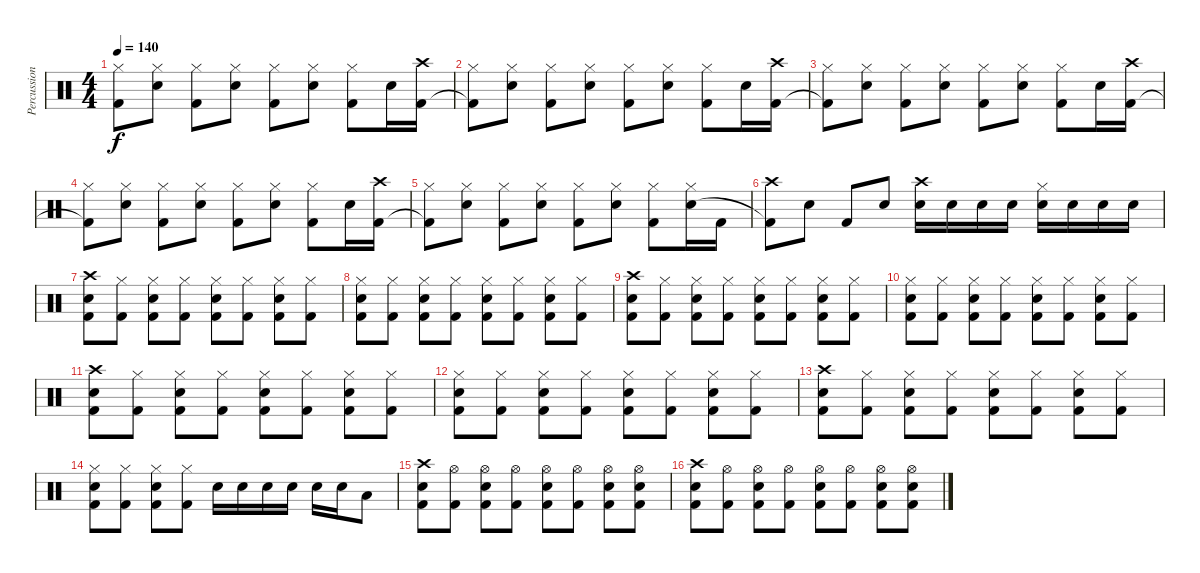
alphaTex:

\track ("Percussion" "Percussion") {instrument percussion}
\staff {score}
\articulation defaults
\ts (4 4)
\tempo 140
\clef neutral
\ks c
("Hi-Hat (closed)" "Kick (hit) 2"{t}).8{dy f} ("Hi-Hat (closed)" "Snare (hit) 2").8 ("Hi-Hat (closed)" "Kick (hit) 2").8 ("Hi-Hat (closed)" "Snare (hit) 2").8 ("Hi-Hat (closed)" "Kick (hit) 2").8 ("Hi-Hat (closed)" "Snare (hit) 2").8 ("Hi-Hat (closed)" "Kick (hit) 2").8 "Snare (hit) 2".16 ("Crash high (hit)" "Kick (hit) 2").16 |
("Hi-Hat (closed)" "Kick (hit) 2"{t}).8 ("Hi-Hat (closed)" "Snare (hit) 2").8 ("Hi-Hat (closed)" "Kick (hit) 2").8 ("Hi-Hat (closed)" "Snare (hit) 2").8 ("Hi-Hat (closed)" "Kick (hit) 2").8 ("Hi-Hat (closed)" "Snare (hit) 2").8 ("Hi-Hat (closed)" "Kick (hit) 2").8 "Snare (hit) 2".16 ("Crash high (hit)" "Kick (hit) 2").16 |
("Hi-Hat (closed)" "Kick (hit) 2"{t}).8 ("Hi-Hat (closed)" "Snare (hit) 2").8 ("Hi-Hat (closed)" "Kick (hit) 2").8 ("Hi-Hat (closed)" "Snare (hit) 2").8 ("Hi-Hat (closed)" "Kick (hit) 2").8 ("Hi-Hat (closed)" "Snare (hit) 2").8 ("Hi-Hat (closed)" "Kick (hit) 2").8 "Snare (hit) 2".16 ("Crash high (hit)" "Kick (hit) 2").16 |
("Hi-Hat (closed)" "Kick (hit) 2"{t}).8 ("Hi-Hat (closed)" "Snare (hit) 2").8 ("Hi-Hat (closed)" "Kick (hit) 2").8 ("Hi-Hat (closed)" "Snare (hit) 2").8 ("Hi-Hat (closed)" "Kick (hit) 2").8 ("Hi-Hat (closed)" "Snare (hit) 2").8 ("Hi-Hat (closed)" "Kick (hit) 2").8 "Snare (hit) 2".16 ("Crash high (hit)" "Kick (hit) 2").16 |
("Hi-Hat (closed)" "Kick (hit) 2"{t}).8 ("Hi-Hat (closed)" "Snare (hit) 2").8 ("Hi-Hat (closed)" "Kick (hit) 2").8 ("Hi-Hat (closed)" "Snare (hit) 2").8 ("Hi-Hat (closed)" "Kick (hit) 2").8 ("Hi-Hat (closed)" "Snare (hit) 2").8 ("Hi-Hat (closed)" "Kick (hit) 2").8 ("Hi-Hat (closed)" "Snare (hit) 2").16 "Kick (hit) 2".16 |
("Crash high (hit)" "Kick (hit) 2"{t}).8 "Snare (hit) 2".8 "Kick (hit) 2".8 "Snare (hit) 2".8 ("Crash high (hit)" "Snare (hit) 2").16 "Snare (hit) 2".16 "Snare (hit) 2".16 "Snare (hit) 2".16 ("Hi-Hat (closed)" "Snare (hit) 2").16 "Snare (hit) 2".16 "Snare (hit) 2".16 "Snare (hit) 2".16 |
("Crash high (hit)" "Snare (hit) 2" "Kick (hit) 2").8 ("Hi-Hat (closed)" "Kick (hit) 2").8 ("Hi-Hat (closed)" "Snare (hit) 2" "Kick (hit) 2").8 ("Hi-Hat (closed)" "Kick (hit) 2").8 ("Hi-Hat (closed)" "Snare (hit) 2" "Kick (hit) 2").8 ("Hi-Hat (closed)" "Kick (hit) 2").8 ("Hi-Hat (closed)" "Snare (hit) 2" "Kick (hit) 2").8 ("Hi-Hat (closed)" "Kick (hit) 2").8 |
("Hi-Hat (closed)" "Snare (hit) 2" "Kick (hit) 2").8 ("Hi-Hat (closed)" "Kick (hit) 2").8 ("Hi-Hat (closed)" "Snare (hit) 2" "Kick (hit) 2").8 ("Hi-Hat (closed)" "Kick (hit) 2").8 ("Hi-Hat (closed)" "Snare (hit) 2" "Kick (hit) 2").8 ("Hi-Hat (closed)" "Kick (hit) 2").8 ("Hi-Hat (closed)" "Snare (hit) 2" "Kick (hit) 2").8 ("Hi-Hat (closed)" "Kick (hit) 2").8 |
("Crash high (hit)" "Snare (hit) 2" "Kick (hit) 2").8 ("Hi-Hat (closed)" "Kick (hit) 2").8 ("Hi-Hat (closed)" "Snare (hit) 2" "Kick (hit) 2").8 ("Hi-Hat (closed)" "Kick (hit) 2").8 ("Hi-Hat (closed)" "Snare (hit) 2" "Kick (hit) 2").8 ("Hi-Hat (closed)" "Kick (hit) 2").8 ("Hi-Hat (closed)" "Snare (hit) 2" "Kick (hit) 2").8 ("Hi-Hat (closed)" "Kick (hit) 2").8 |
("Hi-Hat (closed)" "Snare (hit) 2" "Kick (hit) 2").8 ("Hi-Hat (closed)" "Kick (hit) 2").8 ("Hi-Hat (closed)" "Snare (hit) 2" "Kick (hit) 2").8 ("Hi-Hat (closed)" "Kick (hit) 2").8 ("Hi-Hat (closed)" "Snare (hit) 2" "Kick (hit) 2").8 ("Hi-Hat (closed)" "Kick (hit) 2").8 ("Hi-Hat (closed)" "Snare (hit) 2" "Kick (hit) 2").8 ("Hi-Hat (closed)" "Kick (hit) 2").8 |
("Crash high (hit)" "Snare (hit) 2" "Kick (hit) 2").8 ("Hi-Hat (closed)" "Kick (hit) 2").8 ("Hi-Hat (closed)" "Snare (hit) 2" "Kick (hit) 2").8 ("Hi-Hat (closed)" "Kick (hit) 2").8 ("Hi-Hat (closed)" "Snare (hit) 2" "Kick (hit) 2").8 ("Hi-Hat (closed)" "Kick (hit) 2").8 ("Hi-Hat (closed)" "Snare (hit) 2" "Kick (hit) 2").8 ("Hi-Hat (closed)" "Kick (hit) 2").8 |
("Hi-Hat (closed)" "Snare (hit) 2" "Kick (hit) 2").8 ("Hi-Hat (closed)" "Kick (hit) 2").8 ("Hi-Hat (closed)" "Snare (hit) 2" "Kick (hit) 2").8 ("Hi-Hat (closed)" "Kick (hit) 2").8 ("Hi-Hat (closed)" "Snare (hit) 2" "Kick (hit) 2").8 ("Hi-Hat (closed)" "Kick (hit) 2").8 ("Hi-Hat (closed)" "Snare (hit) 2" "Kick (hit) 2").8 ("Hi-Hat (closed)" "Kick (hit) 2").8 |
("Crash high (hit)" "Snare (hit) 2" "Kick (hit) 2").8 ("Hi-Hat (closed)" "Kick (hit) 2").8 ("Hi-Hat (closed)" "Snare (hit) 2" "Kick (hit) 2").8 ("Hi-Hat (closed)" "Kick (hit) 2").8 ("Hi-Hat (closed)" "Snare (hit) 2" "Kick (hit) 2").8 ("Hi-Hat (closed)" "Kick (hit) 2").8 ("Hi-Hat (closed)" "Snare (hit) 2" "Kick (hit) 2").8 ("Hi-Hat (closed)" "Kick (hit) 2").8 |
("Hi-Hat (closed)" "Snare (hit) 2" "Kick (hit) 2").8 ("Hi-Hat (closed)" "Kick (hit) 2").8 ("Hi-Hat (closed)" "Snare (hit) 2" "Kick (hit) 2").8 ("Hi-Hat (closed)" "Kick (hit) 2").8 "Snare (hit) 2".16 "Snare (hit) 2".16 "Snare (hit) 2".16 "Snare (hit) 2".16 "Snare (hit) 2".16 "Snare (hit) 2".16 "Low Tom (hit)".8 |
("Crash high (hit)" "Snare (hit) 2" "Kick (hit) 2").8 ("Hi-Hat (open)" "Kick (hit) 2").8 ("Hi-Hat (open)" "Snare (hit) 2" "Kick (hit) 2").8 ("Hi-Hat (open)" "Kick (hit) 2").8 ("Hi-Hat (open)" "Snare (hit) 2" "Kick (hit) 2").8 ("Hi-Hat (open)" "Kick (hit) 2").8 ("Hi-Hat (open)" "Snare (hit) 2" "Kick (hit) 2").8 ("Hi-Hat (open)" "Snare (hit) 2" "Kick (hit) 2").8 |
("Crash high (hit)" "Snare (hit) 2" "Kick (hit) 2").8 ("Hi-Hat (open)" "Kick (hit) 2").8 ("Hi-Hat (open)" "Snare (hit) 2" "Kick (hit) 2").8 ("Hi-Hat (open)" "Kick (hit) 2").8 ("Hi-Hat (open)" "Snare (hit) 2" "Kick (hit) 2").8 ("Hi-Hat (open)" "Kick (hit) 2").8 ("Hi-Hat (open)" "Snare (hit) 2" "Kick (hit) 2").8 ("Hi-Hat (open)" "Snare (hit) 2" "Kick (hit) 2").8
